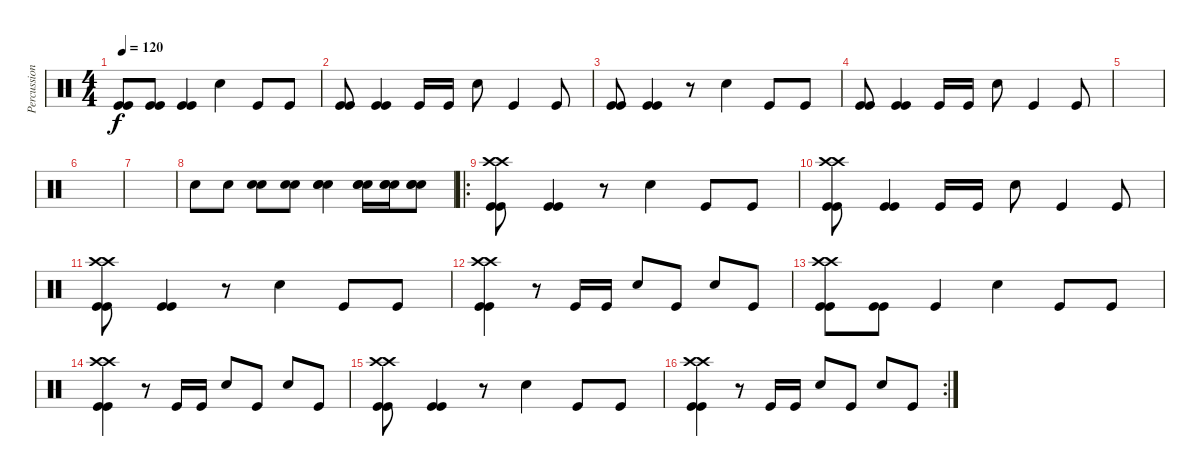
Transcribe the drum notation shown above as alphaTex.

\track ("Percussion" "Percussion") {instrument percussion}
\staff {score}
\articulation defaults
\ts (4 4)
\tempo 120
\clef neutral
\ks c
("Kick (hit)" "Kick (hit)").8{dy f} ("Kick (hit)" "Kick (hit)").8 ("Kick (hit)" "Kick (hit)").4 "Electric Snare (hit)".4 "Kick (hit)".8 "Kick (hit)".8 |
("Kick (hit)" "Kick (hit)").8 ("Kick (hit)" "Kick (hit)").4 "Kick (hit)".16 "Kick (hit)".16 "Electric Snare (hit)".8 "Kick (hit)".4 "Kick (hit)".8 |
("Kick (hit)" "Kick (hit)").8 ("Kick (hit)" "Kick (hit)").4 r.8 "Electric Snare (hit)".4 "Kick (hit)".8 "Kick (hit)".8 |
("Kick (hit)" "Kick (hit)").8 ("Kick (hit)" "Kick (hit)").4 "Kick (hit)".16 "Kick (hit)".16 "Electric Snare (hit)".8 "Kick (hit)".4 "Kick (hit)".8 |
|
|
|
"Electric Snare (hit)".8 "Electric Snare (hit)".8 ("Electric Snare (hit)" "Electric Snare (hit)").8 ("Electric Snare (hit)" "Electric Snare (hit)").8 ("Electric Snare (hit)" "Electric Snare (hit)" "Electric Snare (hit)").4 ("Electric Snare (hit)" "Electric Snare (hit)" "Electric Snare (hit)").16 ("Electric Snare (hit)" "Electric Snare (hit)" "Electric Snare (hit)").16 ("Electric Snare (hit)" "Electric Snare (hit)" "Electric Snare (hit)").8 |
\ro
("Kick (hit)" "Kick (hit)" "Crash high (hit)" "Crash high (hit)").8 ("Kick (hit)" "Kick (hit)").4 r.8 "Electric Snare (hit)".4 "Kick (hit)".8 "Kick (hit)".8 |
("Kick (hit)" "Kick (hit)" "Crash high (hit)" "Crash high (hit)").8 ("Kick (hit)" "Kick (hit)").4 "Kick (hit)".16 "Kick (hit)".16 "Electric Snare (hit)".8 "Kick (hit)".4 "Kick (hit)".8 |
("Kick (hit)" "Kick (hit)" "Crash high (hit)" "Crash high (hit)").8 ("Kick (hit)" "Kick (hit)").4 r.8 "Electric Snare (hit)".4 "Kick (hit)".8 "Kick (hit)".8 |
("Kick (hit)" "Kick (hit)" "Crash high (hit)" "Crash high (hit)").4 r.8 "Kick (hit)".16 "Kick (hit)".16 "Electric Snare (hit)".8 "Kick (hit)".8 "Electric Snare (hit)".8 "Kick (hit)".8 |
("Kick (hit)" "Kick (hit)" "Crash high (hit)" "Crash high (hit)").8 ("Kick (hit)" "Kick (hit)").8 "Kick (hit)".4 "Electric Snare (hit)".4 "Kick (hit)".8 "Kick (hit)".8 |
("Kick (hit)" "Kick (hit)" "Crash high (hit)" "Crash high (hit)").4 r.8 "Kick (hit)".16 "Kick (hit)".16 "Electric Snare (hit)".8 "Kick (hit)".8 "Electric Snare (hit)".8 "Kick (hit)".8 |
("Kick (hit)" "Kick (hit)" "Crash high (hit)" "Crash high (hit)").8 ("Kick (hit)" "Kick (hit)").4 r.8 "Electric Snare (hit)".4 "Kick (hit)".8 "Kick (hit)".8 |
\rc 2
("Kick (hit)" "Kick (hit)" "Crash high (hit)" "Crash high (hit)").4 r.8 "Kick (hit)".16 "Kick (hit)".16 "Electric Snare (hit)".8 "Kick (hit)".8 "Electric Snare (hit)".8 "Kick (hit)".8
